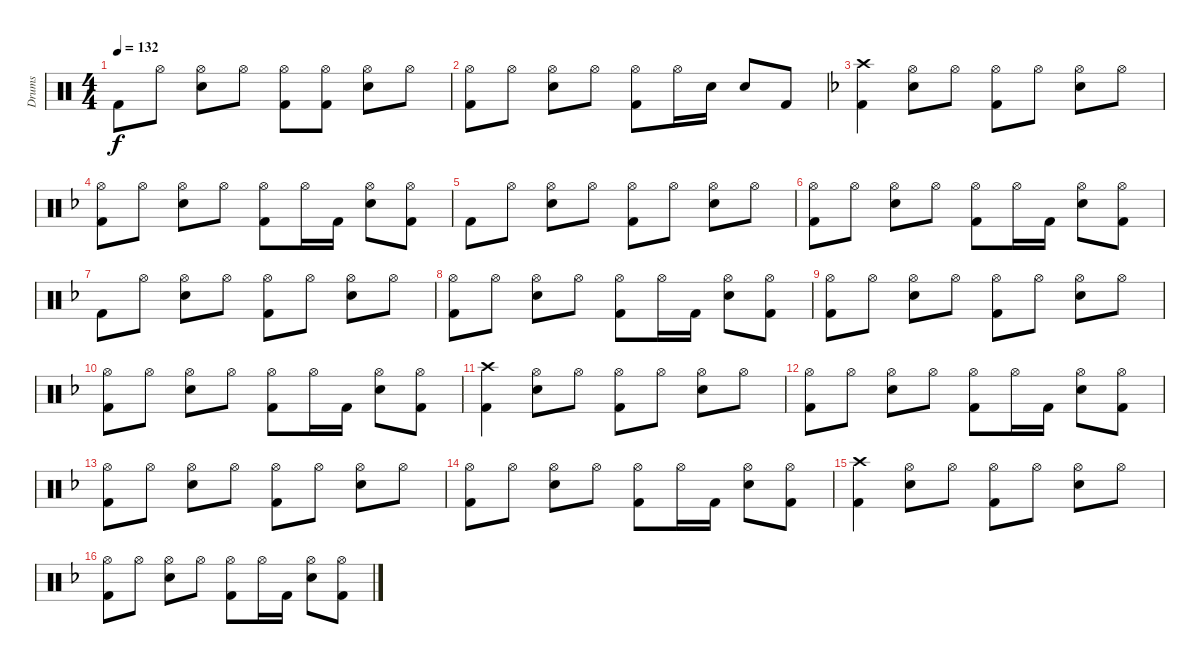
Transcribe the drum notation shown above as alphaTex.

\track ("Drums " "Drums ") {instrument percussion}
\staff {score}
\articulation defaults
\ts (4 4)
\tempo 132
\clef neutral
\ks aminor "Kick (hit) 2".8{dy f} "Hi-Hat (open)".8
("Snare (hit) 2" "Hi-Hat (open)").8 "Hi-Hat (open)".8 ("Kick (hit) 2" "Hi-Hat (open)").8 ("Kick (hit) 2" "Hi-Hat (open)").8 ("Snare (hit) 2" "Hi-Hat (open)").8 "Hi-Hat (open)".8 |
("Kick (hit) 2" "Hi-Hat (open)").8 "Hi-Hat (open)".8 ("Snare (hit) 2" "Hi-Hat (open)").8 "Hi-Hat (open)".8 ("Kick (hit) 2" "Hi-Hat (open)").8 "Hi-Hat (open)".16 "Snare (hit) 2".16 "Snare (hit) 2".8 "Kick (hit) 2".8 |
\ks dminor
("Kick (hit) 2" "Crash high (hit)").4 ("Snare (hit) 2" "Hi-Hat (open)").8 "Hi-Hat (open)".8 ("Kick (hit) 2" "Hi-Hat (open)").8 "Hi-Hat (open)".8 ("Snare (hit) 2" "Hi-Hat (open)").8 "Hi-Hat (open)".8 |
("Kick (hit) 2" "Hi-Hat (open)").8 "Hi-Hat (open)".8 ("Snare (hit) 2" "Hi-Hat (open)").8 "Hi-Hat (open)".8 ("Kick (hit) 2" "Hi-Hat (open)").8 "Hi-Hat (open)".16 "Kick (hit) 2".16 ("Snare (hit) 2" "Hi-Hat (open)").8 ("Kick (hit) 2" "Hi-Hat (open)").8 |
"Kick (hit) 2".8 "Hi-Hat (open)".8 ("Snare (hit) 2" "Hi-Hat (open)").8 "Hi-Hat (open)".8 ("Kick (hit) 2" "Hi-Hat (open)").8 "Hi-Hat (open)".8 ("Snare (hit) 2" "Hi-Hat (open)").8 "Hi-Hat (open)".8 |
("Kick (hit) 2" "Hi-Hat (open)").8 "Hi-Hat (open)".8 ("Snare (hit) 2" "Hi-Hat (open)").8 "Hi-Hat (open)".8 ("Kick (hit) 2" "Hi-Hat (open)").8 "Hi-Hat (open)".16 "Kick (hit) 2".16 ("Snare (hit) 2" "Hi-Hat (open)").8 ("Kick (hit) 2" "Hi-Hat (open)").8 |
"Kick (hit) 2".8 "Hi-Hat (open)".8 ("Snare (hit) 2" "Hi-Hat (open)").8 "Hi-Hat (open)".8 ("Kick (hit) 2" "Hi-Hat (open)").8 "Hi-Hat (open)".8 ("Snare (hit) 2" "Hi-Hat (open)").8 "Hi-Hat (open)".8 |
("Kick (hit) 2" "Hi-Hat (open)").8 "Hi-Hat (open)".8 ("Snare (hit) 2" "Hi-Hat (open)").8 "Hi-Hat (open)".8 ("Kick (hit) 2" "Hi-Hat (open)").8 "Hi-Hat (open)".16 "Kick (hit) 2".16 ("Snare (hit) 2" "Hi-Hat (open)").8 ("Kick (hit) 2" "Hi-Hat (open)").8 |
("Kick (hit) 2" "Hi-Hat (open)").8 "Hi-Hat (open)".8 ("Snare (hit) 2" "Hi-Hat (open)").8 "Hi-Hat (open)".8 ("Kick (hit) 2" "Hi-Hat (open)").8 "Hi-Hat (open)".8 ("Snare (hit) 2" "Hi-Hat (open)").8 "Hi-Hat (open)".8 |
("Kick (hit) 2" "Hi-Hat (open)").8 "Hi-Hat (open)".8 ("Snare (hit) 2" "Hi-Hat (open)").8 "Hi-Hat (open)".8 ("Kick (hit) 2" "Hi-Hat (open)").8 "Hi-Hat (open)".16 "Kick (hit) 2".16 ("Snare (hit) 2" "Hi-Hat (open)").8 ("Kick (hit) 2" "Hi-Hat (open)").8 |
("Kick (hit) 2" "Crash high (hit)").4 ("Snare (hit) 2" "Hi-Hat (open)").8 "Hi-Hat (open)".8 ("Kick (hit) 2" "Hi-Hat (open)").8 "Hi-Hat (open)".8 ("Snare (hit) 2" "Hi-Hat (open)").8 "Hi-Hat (open)".8 |
("Kick (hit) 2" "Hi-Hat (open)").8 "Hi-Hat (open)".8 ("Snare (hit) 2" "Hi-Hat (open)").8 "Hi-Hat (open)".8 ("Kick (hit) 2" "Hi-Hat (open)").8 "Hi-Hat (open)".16 "Kick (hit) 2".16 ("Snare (hit) 2" "Hi-Hat (open)").8 ("Kick (hit) 2" "Hi-Hat (open)").8 |
("Kick (hit) 2" "Hi-Hat (open)").8 "Hi-Hat (open)".8 ("Snare (hit) 2" "Hi-Hat (open)").8 "Hi-Hat (open)".8 ("Kick (hit) 2" "Hi-Hat (open)").8 "Hi-Hat (open)".8 ("Snare (hit) 2" "Hi-Hat (open)").8 "Hi-Hat (open)".8 |
("Kick (hit) 2" "Hi-Hat (open)").8 "Hi-Hat (open)".8 ("Snare (hit) 2" "Hi-Hat (open)").8 "Hi-Hat (open)".8 ("Kick (hit) 2" "Hi-Hat (open)").8 "Hi-Hat (open)".16 "Kick (hit) 2".16 ("Snare (hit) 2" "Hi-Hat (open)").8 ("Kick (hit) 2" "Hi-Hat (open)").8 |
("Kick (hit) 2" "Crash high (hit)").4 ("Snare (hit) 2" "Hi-Hat (open)").8 "Hi-Hat (open)".8 ("Kick (hit) 2" "Hi-Hat (open)").8 "Hi-Hat (open)".8 ("Snare (hit) 2" "Hi-Hat (open)").8 "Hi-Hat (open)".8 |
("Kick (hit) 2" "Hi-Hat (open)").8 "Hi-Hat (open)".8 ("Snare (hit) 2" "Hi-Hat (open)").8 "Hi-Hat (open)".8 ("Kick (hit) 2" "Hi-Hat (open)").8 "Hi-Hat (open)".16 "Kick (hit) 2".16 ("Snare (hit) 2" "Hi-Hat (open)").8 ("Kick (hit) 2" "Hi-Hat (open)").8
